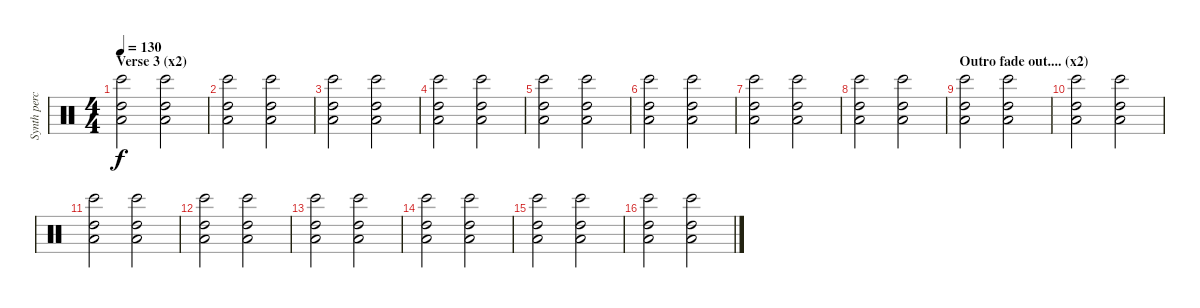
\track ("Synth perc" "Synth perc") {instrument percussion}
\staff {score}
\articulation defaults
\ts (4 4)
\section ("" "Verse 3 (x2)")
\tempo 130
\clef neutral
\ks c
("High Tom (hit)" "Bongo High (hit)" "Low Tom (hit)").2{dy f} ("High Tom (hit)" "Bongo High (hit)" "Low Tom (hit)").2 |
("High Tom (hit)" "Bongo High (hit)" "Low Tom (hit)").2 ("High Tom (hit)" "Bongo High (hit)" "Low Tom (hit)").2 |
("High Tom (hit)" "Bongo High (hit)" "Low Tom (hit)").2 ("High Tom (hit)" "Bongo High (hit)" "Low Tom (hit)").2 |
("High Tom (hit)" "Bongo High (hit)" "Low Tom (hit)").2 ("High Tom (hit)" "Bongo High (hit)" "Low Tom (hit)").2 |
("High Tom (hit)" "Bongo High (hit)" "Low Tom (hit)").2 ("High Tom (hit)" "Bongo High (hit)" "Low Tom (hit)").2 |
("High Tom (hit)" "Bongo High (hit)" "Low Tom (hit)").2 ("High Tom (hit)" "Bongo High (hit)" "Low Tom (hit)").2 |
("High Tom (hit)" "Bongo High (hit)" "Low Tom (hit)").2 ("High Tom (hit)" "Bongo High (hit)" "Low Tom (hit)").2 |
("High Tom (hit)" "Bongo High (hit)" "Low Tom (hit)").2 ("High Tom (hit)" "Bongo High (hit)" "Low Tom (hit)").2 |
\section ("" "Outro fade out.... (x2)")
("High Tom (hit)" "Bongo High (hit)" "Low Tom (hit)").2 ("High Tom (hit)" "Bongo High (hit)" "Low Tom (hit)").2 |
("High Tom (hit)" "Bongo High (hit)" "Low Tom (hit)").2 ("High Tom (hit)" "Bongo High (hit)" "Low Tom (hit)").2 |
("High Tom (hit)" "Bongo High (hit)" "Low Tom (hit)").2 ("High Tom (hit)" "Bongo High (hit)" "Low Tom (hit)").2 |
("High Tom (hit)" "Bongo High (hit)" "Low Tom (hit)").2 ("High Tom (hit)" "Bongo High (hit)" "Low Tom (hit)").2 |
("High Tom (hit)" "Bongo High (hit)" "Low Tom (hit)").2 ("High Tom (hit)" "Bongo High (hit)" "Low Tom (hit)").2 |
("High Tom (hit)" "Bongo High (hit)" "Low Tom (hit)").2 ("High Tom (hit)" "Bongo High (hit)" "Low Tom (hit)").2 |
("High Tom (hit)" "Bongo High (hit)" "Low Tom (hit)").2 ("High Tom (hit)" "Bongo High (hit)" "Low Tom (hit)").2 |
("High Tom (hit)" "Bongo High (hit)" "Low Tom (hit)").2 ("High Tom (hit)" "Bongo High (hit)" "Low Tom (hit)").2
